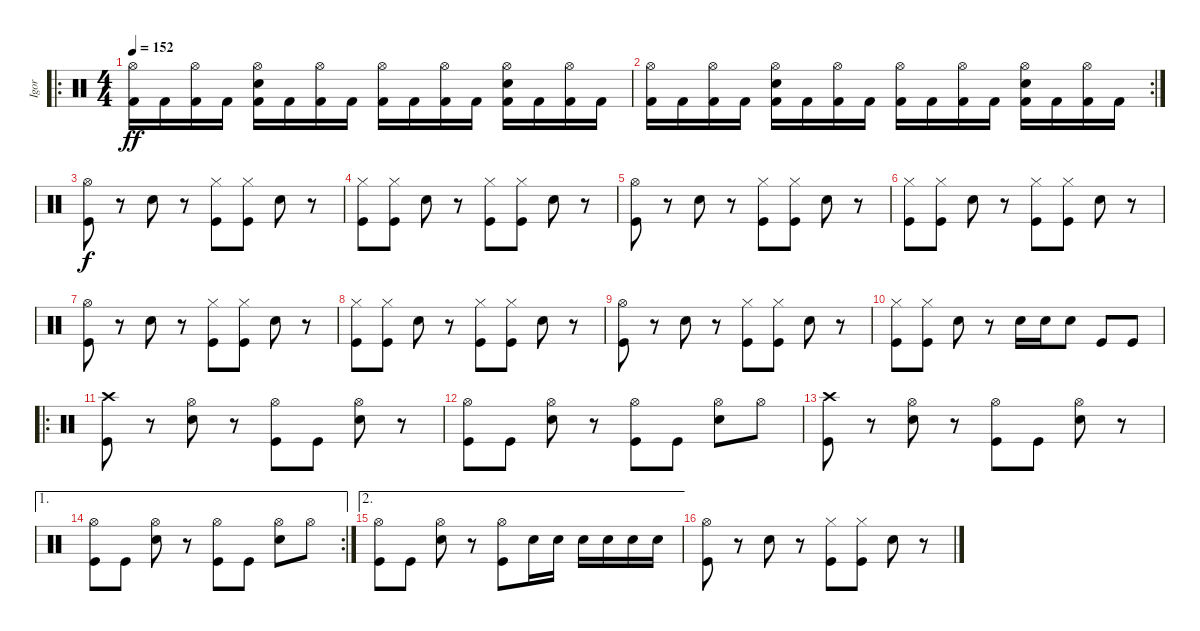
\track ("Igor" "Igor") {instrument percussion}
\staff {score}
\articulation defaults
\ro
\ts (4 4)
\tempo 152
\clef neutral
\ks c
("Hi-Hat (open)" "Kick (hit) 2").16{dy ff} "Kick (hit) 2".16 ("Hi-Hat (open)" "Kick (hit) 2").16 "Kick (hit) 2".16 ("Hi-Hat (open)" "Snare (hit) 2" "Kick (hit) 2").16 "Kick (hit) 2".16 ("Hi-Hat (open)" "Kick (hit) 2").16 "Kick (hit) 2".16 ("Hi-Hat (open)" "Kick (hit) 2").16 "Kick (hit) 2".16 ("Hi-Hat (open)" "Kick (hit) 2").16 "Kick (hit) 2".16 ("Hi-Hat (open)" "Snare (hit) 2" "Kick (hit) 2").16 "Kick (hit) 2".16 ("Hi-Hat (open)" "Kick (hit) 2").16 "Kick (hit) 2".16 |
\rc 2
("Hi-Hat (open)" "Kick (hit) 2").16 "Kick (hit) 2".16 ("Hi-Hat (open)" "Kick (hit) 2").16 "Kick (hit) 2".16 ("Hi-Hat (open)" "Snare (hit) 2" "Kick (hit) 2").16 "Kick (hit) 2".16 ("Hi-Hat (open)" "Kick (hit) 2").16 "Kick (hit) 2".16 ("Hi-Hat (open)" "Kick (hit) 2").16 "Kick (hit) 2".16 ("Hi-Hat (open)" "Kick (hit) 2").16 "Kick (hit) 2".16 ("Hi-Hat (open)" "Snare (hit) 2" "Kick (hit) 2").16 "Kick (hit) 2".16 ("Hi-Hat (open)" "Kick (hit) 2").16 "Kick (hit) 2".16 |
("Hi-Hat (open)" "Kick (hit)").8{dy f} r.8 "Snare (hit) 2".8 r.8 ("Hi-Hat (closed)" "Kick (hit)").8 ("Hi-Hat (closed)" "Kick (hit)").8 "Snare (hit) 2".8 r.8 |
("Hi-Hat (closed)" "Kick (hit)").8 ("Hi-Hat (closed)" "Kick (hit)").8 "Snare (hit) 2".8 r.8 ("Hi-Hat (closed)" "Kick (hit)").8 ("Hi-Hat (closed)" "Kick (hit)").8 "Snare (hit) 2".8 r.8 |
("Hi-Hat (open)" "Kick (hit)").8 r.8 "Snare (hit) 2".8 r.8 ("Hi-Hat (closed)" "Kick (hit)").8 ("Hi-Hat (closed)" "Kick (hit)").8 "Snare (hit) 2".8 r.8 |
("Hi-Hat (closed)" "Kick (hit)").8 ("Hi-Hat (closed)" "Kick (hit)").8 "Snare (hit) 2".8 r.8 ("Hi-Hat (closed)" "Kick (hit)").8 ("Hi-Hat (closed)" "Kick (hit)").8 "Snare (hit) 2".8 r.8 |
("Hi-Hat (open)" "Kick (hit)").8 r.8 "Snare (hit) 2".8 r.8 ("Hi-Hat (closed)" "Kick (hit)").8 ("Hi-Hat (closed)" "Kick (hit)").8 "Snare (hit) 2".8 r.8 |
("Hi-Hat (closed)" "Kick (hit)").8 ("Hi-Hat (closed)" "Kick (hit)").8 "Snare (hit) 2".8 r.8 ("Hi-Hat (closed)" "Kick (hit)").8 ("Hi-Hat (closed)" "Kick (hit)").8 "Snare (hit) 2".8 r.8 |
("Hi-Hat (open)" "Kick (hit)").8 r.8 "Snare (hit) 2".8 r.8 ("Hi-Hat (closed)" "Kick (hit)").8 ("Hi-Hat (closed)" "Kick (hit)").8 "Snare (hit) 2".8 r.8 |
("Hi-Hat (closed)" "Kick (hit)").8 ("Hi-Hat (closed)" "Kick (hit)").8 "Snare (hit) 2".8 r.8 "Snare (hit) 2".16 "Snare (hit) 2".16 "Snare (hit) 2".8 "Kick (hit)".8 "Kick (hit)".8 |
\ro
("Crash high (hit)" "Kick (hit)").8 r.8 ("Hi-Hat (open)" "Snare (hit) 2").8 r.8 ("Hi-Hat (open)" "Kick (hit)").8 "Kick (hit)".8 ("Hi-Hat (open)" "Snare (hit) 2").8 r.8 |
("Hi-Hat (open)" "Kick (hit)").8 "Kick (hit)".8 ("Hi-Hat (open)" "Snare (hit) 2").8 r.8 ("Hi-Hat (open)" "Kick (hit)").8 "Kick (hit)".8 ("Hi-Hat (open)" "Snare (hit) 2").8 "Hi-Hat (open)".8 |
("Crash high (hit)" "Kick (hit)").8 r.8 ("Hi-Hat (open)" "Snare (hit) 2").8 r.8 ("Hi-Hat (open)" "Kick (hit)").8 "Kick (hit)".8 ("Hi-Hat (open)" "Snare (hit) 2").8 r.8 |
\ae 1
\rc 2
("Hi-Hat (open)" "Kick (hit)").8 "Kick (hit)".8 ("Hi-Hat (open)" "Snare (hit) 2").8 r.8 ("Hi-Hat (open)" "Kick (hit)").8 "Kick (hit)".8 ("Hi-Hat (open)" "Snare (hit) 2").8 "Hi-Hat (open)".8 |
\ae 2
("Hi-Hat (open)" "Kick (hit)").8 "Kick (hit)".8 ("Hi-Hat (open)" "Snare (hit) 2").8 r.8 ("Hi-Hat (open)" "Kick (hit)").8 "Snare (hit) 2".16 "Snare (hit) 2".16 "Snare (hit) 2".16 "Snare (hit) 2".16 "Snare (hit) 2".16 "Snare (hit) 2".16 |
("Hi-Hat (open)" "Kick (hit)").8 r.8 "Snare (hit) 2".8 r.8 ("Hi-Hat (closed)" "Kick (hit)").8 ("Hi-Hat (closed)" "Kick (hit)").8 "Snare (hit) 2".8 r.8
